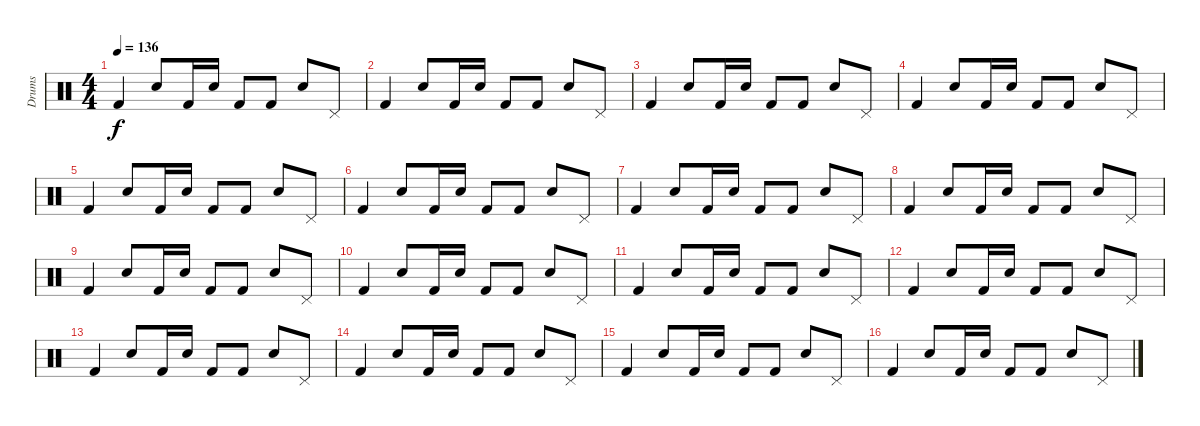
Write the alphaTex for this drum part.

\track ("Drums" "Drums") {instrument percussion}
\staff {score}
\articulation defaults
\ts (4 4)
\tempo 136
\clef neutral
\ks c "Kick (hit) 2".4{dy f} "Snare (hit) 2".8 "Kick (hit) 2".16 "Snare (hit) 2".16 "Kick (hit) 2".8 "Kick (hit) 2".8 "Snare (hit) 2".8 "Pedal Hi-Hat (hit)".8
|
"Kick (hit) 2".4 "Snare (hit) 2".8 "Kick (hit) 2".16 "Snare (hit) 2".16 "Kick (hit) 2".8 "Kick (hit) 2".8 "Snare (hit) 2".8 "Pedal Hi-Hat (hit)".8 |
"Kick (hit) 2".4 "Snare (hit) 2".8 "Kick (hit) 2".16 "Snare (hit) 2".16 "Kick (hit) 2".8 "Kick (hit) 2".8 "Snare (hit) 2".8 "Pedal Hi-Hat (hit)".8 |
"Kick (hit) 2".4 "Snare (hit) 2".8 "Kick (hit) 2".16 "Snare (hit) 2".16 "Kick (hit) 2".8 "Kick (hit) 2".8 "Snare (hit) 2".8 "Pedal Hi-Hat (hit)".8 |
"Kick (hit) 2".4 "Snare (hit) 2".8 "Kick (hit) 2".16 "Snare (hit) 2".16 "Kick (hit) 2".8 "Kick (hit) 2".8 "Snare (hit) 2".8 "Pedal Hi-Hat (hit)".8 |
"Kick (hit) 2".4 "Snare (hit) 2".8 "Kick (hit) 2".16 "Snare (hit) 2".16 "Kick (hit) 2".8 "Kick (hit) 2".8 "Snare (hit) 2".8 "Pedal Hi-Hat (hit)".8 |
"Kick (hit) 2".4 "Snare (hit) 2".8 "Kick (hit) 2".16 "Snare (hit) 2".16 "Kick (hit) 2".8 "Kick (hit) 2".8 "Snare (hit) 2".8 "Pedal Hi-Hat (hit)".8 |
"Kick (hit) 2".4 "Snare (hit) 2".8 "Kick (hit) 2".16 "Snare (hit) 2".16 "Kick (hit) 2".8 "Kick (hit) 2".8 "Snare (hit) 2".8 "Pedal Hi-Hat (hit)".8 |
"Kick (hit) 2".4 "Snare (hit) 2".8 "Kick (hit) 2".16 "Snare (hit) 2".16 "Kick (hit) 2".8 "Kick (hit) 2".8 "Snare (hit) 2".8 "Pedal Hi-Hat (hit)".8 |
"Kick (hit) 2".4 "Snare (hit) 2".8 "Kick (hit) 2".16 "Snare (hit) 2".16 "Kick (hit) 2".8 "Kick (hit) 2".8 "Snare (hit) 2".8 "Pedal Hi-Hat (hit)".8 |
"Kick (hit) 2".4 "Snare (hit) 2".8 "Kick (hit) 2".16 "Snare (hit) 2".16 "Kick (hit) 2".8 "Kick (hit) 2".8 "Snare (hit) 2".8 "Pedal Hi-Hat (hit)".8 |
"Kick (hit) 2".4 "Snare (hit) 2".8 "Kick (hit) 2".16 "Snare (hit) 2".16 "Kick (hit) 2".8 "Kick (hit) 2".8 "Snare (hit) 2".8 "Pedal Hi-Hat (hit)".8 |
"Kick (hit) 2".4 "Snare (hit) 2".8 "Kick (hit) 2".16 "Snare (hit) 2".16 "Kick (hit) 2".8 "Kick (hit) 2".8 "Snare (hit) 2".8 "Pedal Hi-Hat (hit)".8 |
"Kick (hit) 2".4 "Snare (hit) 2".8 "Kick (hit) 2".16 "Snare (hit) 2".16 "Kick (hit) 2".8 "Kick (hit) 2".8 "Snare (hit) 2".8 "Pedal Hi-Hat (hit)".8 |
"Kick (hit) 2".4 "Snare (hit) 2".8 "Kick (hit) 2".16 "Snare (hit) 2".16 "Kick (hit) 2".8 "Kick (hit) 2".8 "Snare (hit) 2".8 "Pedal Hi-Hat (hit)".8 |
"Kick (hit) 2".4 "Snare (hit) 2".8 "Kick (hit) 2".16 "Snare (hit) 2".16 "Kick (hit) 2".8 "Kick (hit) 2".8 "Snare (hit) 2".8 "Pedal Hi-Hat (hit)".8
